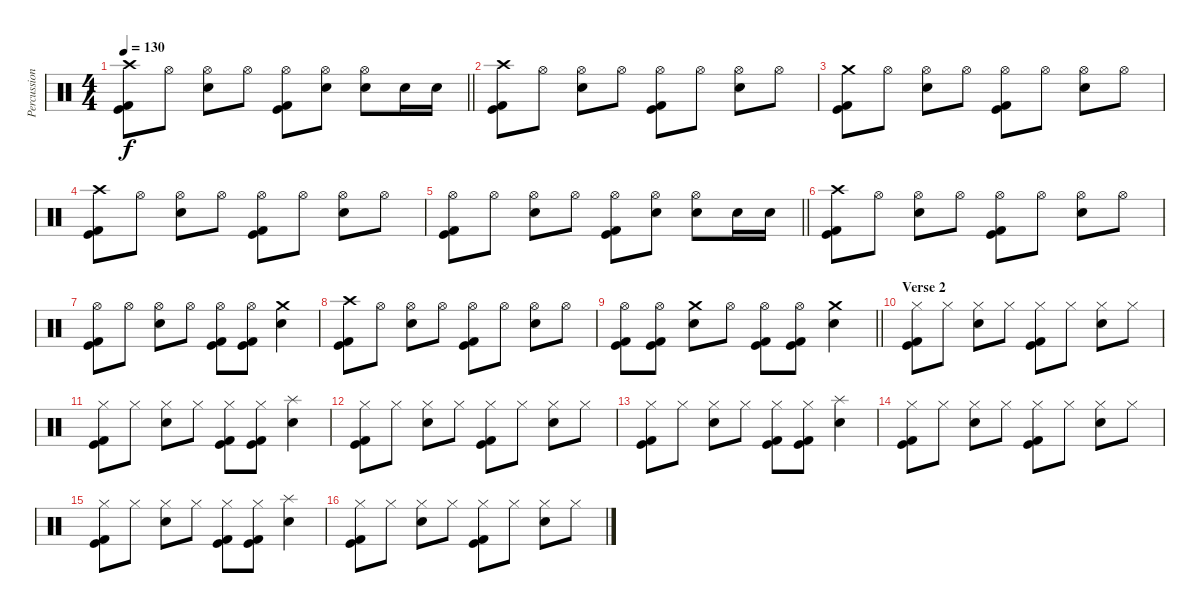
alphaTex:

\track ("Percussion" "Percussion") {instrument percussion}
\staff {score}
\articulation defaults
\ts (4 4)
\tempo 130
\clef neutral
\barLineRight lightlight
\ks c
("Crash high (hit)" "Kick (hit)" "Kick (hit) 2").8{dy f} "Hi-Hat (open)".8 ("Hi-Hat (open)" "Electric Snare (hit)").8 "Hi-Hat (open)".8 ("Hi-Hat (open)" "Kick (hit)" "Kick (hit) 2").8 ("Hi-Hat (open)" "Electric Snare (hit)").8 ("Hi-Hat (open)" "Electric Snare (hit)").8 "Electric Snare (hit)".16 "Electric Snare (hit)".16 |
\section ("" "")
("Crash high (hit)" "Kick (hit)" "Kick (hit) 2").8 "Hi-Hat (open)".8 ("Hi-Hat (open)" "Electric Snare (hit)").8 "Hi-Hat (open)".8 ("Hi-Hat (open)" "Kick (hit)" "Kick (hit) 2").8 "Hi-Hat (open)".8 ("Hi-Hat (open)" "Electric Snare (hit)").8 "Hi-Hat (open)".8 |
("Crash medium (hit)" "Kick (hit)" "Kick (hit) 2").8 "Hi-Hat (open)".8 ("Hi-Hat (open)" "Electric Snare (hit)").8 "Hi-Hat (open)".8 ("Hi-Hat (open)" "Kick (hit)" "Kick (hit) 2").8 "Hi-Hat (open)".8 ("Hi-Hat (open)" "Electric Snare (hit)").8 "Hi-Hat (open)".8 |
("Crash high (hit)" "Kick (hit)" "Kick (hit) 2").8 "Hi-Hat (open)".8 ("Hi-Hat (open)" "Electric Snare (hit)").8 "Hi-Hat (open)".8 ("Hi-Hat (open)" "Kick (hit)" "Kick (hit) 2").8 "Hi-Hat (open)".8 ("Hi-Hat (open)" "Electric Snare (hit)").8 "Hi-Hat (open)".8 |
\barLineRight lightlight
("Hi-Hat (open)" "Kick (hit)" "Kick (hit) 2").8 "Hi-Hat (open)".8 ("Hi-Hat (open)" "Electric Snare (hit)").8 "Hi-Hat (open)".8 ("Hi-Hat (open)" "Kick (hit)" "Kick (hit) 2").8 ("Hi-Hat (open)" "Electric Snare (hit)").8 ("Hi-Hat (open)" "Electric Snare (hit)").8 "Electric Snare (hit)".16 "Electric Snare (hit)".16 |
\section ("" "")
("Crash high (hit)" "Kick (hit)" "Kick (hit) 2").8 "Hi-Hat (open)".8 ("Hi-Hat (open)" "Electric Snare (hit)").8 "Hi-Hat (open)".8 ("Hi-Hat (open)" "Kick (hit)" "Kick (hit) 2").8 "Hi-Hat (open)".8 ("Hi-Hat (open)" "Electric Snare (hit)").8 "Hi-Hat (open)".8 |
("Hi-Hat (open)" "Kick (hit)" "Kick (hit) 2").8 "Hi-Hat (open)".8 ("Hi-Hat (open)" "Electric Snare (hit)").8 "Hi-Hat (open)".8 ("Hi-Hat (open)" "Kick (hit)" "Kick (hit) 2").8 ("Hi-Hat (open)" "Kick (hit)" "Kick (hit) 2").8 ("Crash medium (hit)" "Electric Snare (hit)").4 |
("Crash high (hit)" "Kick (hit)" "Kick (hit) 2").8 "Hi-Hat (open)".8 ("Hi-Hat (open)" "Electric Snare (hit)").8 "Hi-Hat (open)".8 ("Hi-Hat (open)" "Kick (hit)" "Kick (hit) 2").8 "Hi-Hat (open)".8 ("Hi-Hat (open)" "Electric Snare (hit)").8 "Hi-Hat (open)".8 |
\barLineRight lightlight
("Hi-Hat (open)" "Kick (hit)" "Kick (hit) 2").8 ("Hi-Hat (open)" "Kick (hit)" "Kick (hit) 2").8 ("Crash medium (hit)" "Electric Snare (hit)").8 "Hi-Hat (open)".8 ("Hi-Hat (open)" "Kick (hit)" "Kick (hit) 2").8 ("Hi-Hat (open)" "Kick (hit)" "Kick (hit) 2").8 ("Crash medium (hit)" "Electric Snare (hit)").4 |
\section ("" "Verse 2")
("Hi-Hat (closed)" "Kick (hit)" "Kick (hit) 2").8 "Hi-Hat (closed)".8 ("Hi-Hat (closed)" "Electric Snare (hit)").8 "Hi-Hat (closed)".8 ("Hi-Hat (closed)" "Kick (hit)" "Kick (hit) 2").8 "Hi-Hat (closed)".8 ("Hi-Hat (closed)" "Electric Snare (hit)").8 "Hi-Hat (closed)".8 |
("Hi-Hat (closed)" "Kick (hit)" "Kick (hit) 2").8 "Hi-Hat (closed)".8 ("Hi-Hat (closed)" "Electric Snare (hit)").8 "Hi-Hat (closed)".8 ("Hi-Hat (closed)" "Kick (hit)" "Kick (hit) 2").8 ("Hi-Hat (closed)" "Kick (hit)" "Kick (hit) 2").8 ("Splash (hit)" "Electric Snare (hit)").4 |
("Hi-Hat (closed)" "Kick (hit)" "Kick (hit) 2").8 "Hi-Hat (closed)".8 ("Hi-Hat (closed)" "Electric Snare (hit)").8 "Hi-Hat (closed)".8 ("Hi-Hat (closed)" "Kick (hit)" "Kick (hit) 2").8 "Hi-Hat (closed)".8 ("Hi-Hat (closed)" "Electric Snare (hit)").8 "Hi-Hat (closed)".8 |
("Hi-Hat (closed)" "Kick (hit)" "Kick (hit) 2").8 "Hi-Hat (closed)".8 ("Hi-Hat (closed)" "Electric Snare (hit)").8 "Hi-Hat (closed)".8 ("Hi-Hat (closed)" "Kick (hit)" "Kick (hit) 2").8 ("Hi-Hat (closed)" "Kick (hit)" "Kick (hit) 2").8 ("Splash (hit)" "Electric Snare (hit)").4 |
("Hi-Hat (closed)" "Kick (hit)" "Kick (hit) 2").8 "Hi-Hat (closed)".8 ("Hi-Hat (closed)" "Electric Snare (hit)").8 "Hi-Hat (closed)".8 ("Hi-Hat (closed)" "Kick (hit)" "Kick (hit) 2").8 "Hi-Hat (closed)".8 ("Hi-Hat (closed)" "Electric Snare (hit)").8 "Hi-Hat (closed)".8 |
("Hi-Hat (closed)" "Kick (hit)" "Kick (hit) 2").8 "Hi-Hat (closed)".8 ("Hi-Hat (closed)" "Electric Snare (hit)").8 "Hi-Hat (closed)".8 ("Hi-Hat (closed)" "Kick (hit)" "Kick (hit) 2").8 ("Hi-Hat (closed)" "Kick (hit)" "Kick (hit) 2").8 ("Splash (hit)" "Electric Snare (hit)").4 |
("Hi-Hat (closed)" "Kick (hit)" "Kick (hit) 2").8 "Hi-Hat (closed)".8 ("Hi-Hat (closed)" "Electric Snare (hit)").8 "Hi-Hat (closed)".8 ("Hi-Hat (closed)" "Kick (hit)" "Kick (hit) 2").8 "Hi-Hat (closed)".8 ("Hi-Hat (closed)" "Electric Snare (hit)").8 "Hi-Hat (closed)".8
